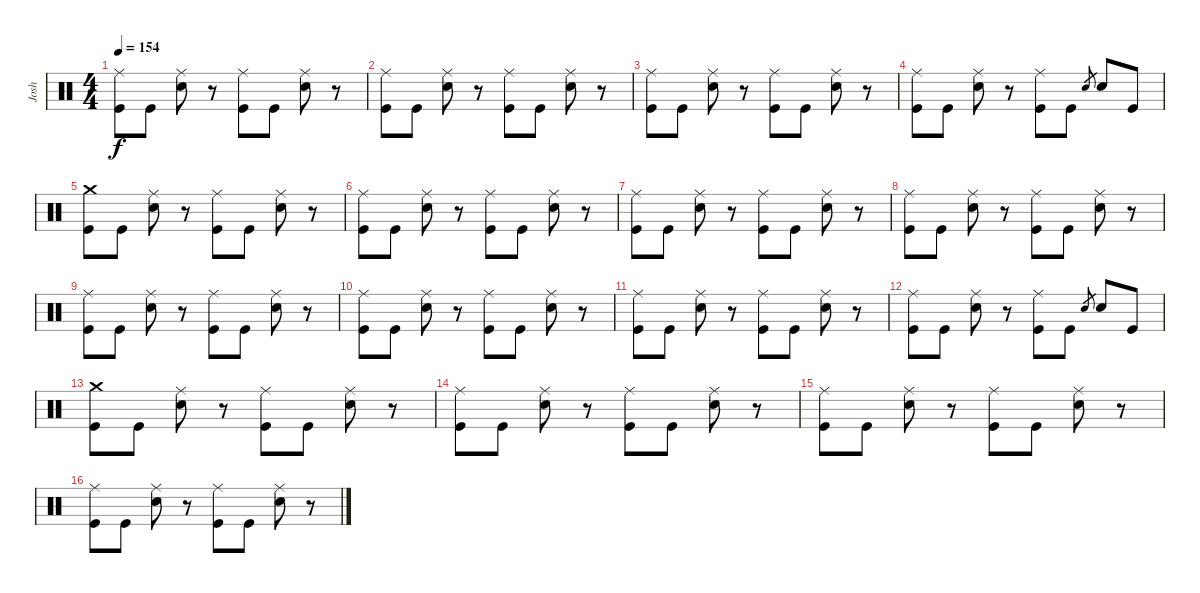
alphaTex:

\track ("Josh" "Josh") {instrument percussion}
\staff {score}
\articulation defaults
\ts (4 4)
\tempo 154
\clef neutral
\ks c
("Ride (middle)" "Kick (hit)").8{dy f} "Kick (hit)".8 ("Ride (middle)" "Snare (hit) 2").8 r.8 ("Ride (middle)" "Kick (hit)").8 "Kick (hit)".8 ("Ride (middle)" "Snare (hit) 2").8 r.8 |
("Ride (middle)" "Kick (hit)").8 "Kick (hit)".8 ("Ride (middle)" "Snare (hit) 2").8 r.8 ("Ride (middle)" "Kick (hit)").8 "Kick (hit)".8 ("Ride (middle)" "Snare (hit) 2").8 r.8 |
("Ride (middle)" "Kick (hit)").8 "Kick (hit)".8 ("Ride (middle)" "Snare (hit) 2").8 r.8 ("Ride (middle)" "Kick (hit)").8 "Kick (hit)".8 ("Ride (middle)" "Snare (hit) 2").8 r.8 |
("Ride (middle)" "Kick (hit)").8 "Kick (hit)".8 ("Ride (middle)" "Snare (hit) 2").8 r.8 ("Ride (middle)" "Kick (hit)").8 "Kick (hit)".8 "Snare (hit) 2".8{gr} "Snare (hit) 2".8 "Kick (hit)".8 |
("Crash medium (hit)" "Kick (hit)").8 "Kick (hit)".8 ("Ride (middle)" "Snare (hit) 2").8 r.8 ("Ride (middle)" "Kick (hit)").8 "Kick (hit)".8 ("Ride (middle)" "Snare (hit) 2").8 r.8 |
("Ride (middle)" "Kick (hit)").8 "Kick (hit)".8 ("Ride (middle)" "Snare (hit) 2").8 r.8 ("Ride (middle)" "Kick (hit)").8 "Kick (hit)".8 ("Ride (middle)" "Snare (hit) 2").8 r.8 |
("Ride (middle)" "Kick (hit)").8 "Kick (hit)".8 ("Ride (middle)" "Snare (hit) 2").8 r.8 ("Ride (middle)" "Kick (hit)").8 "Kick (hit)".8 ("Ride (middle)" "Snare (hit) 2").8 r.8 |
("Ride (middle)" "Kick (hit)").8 "Kick (hit)".8 ("Ride (middle)" "Snare (hit) 2").8 r.8 ("Ride (middle)" "Kick (hit)").8 "Kick (hit)".8 ("Ride (middle)" "Snare (hit) 2").8 r.8 |
("Ride (middle)" "Kick (hit)").8 "Kick (hit)".8 ("Ride (middle)" "Snare (hit) 2").8 r.8 ("Ride (middle)" "Kick (hit)").8 "Kick (hit)".8 ("Ride (middle)" "Snare (hit) 2").8 r.8 |
("Ride (middle)" "Kick (hit)").8 "Kick (hit)".8 ("Ride (middle)" "Snare (hit) 2").8 r.8 ("Ride (middle)" "Kick (hit)").8 "Kick (hit)".8 ("Ride (middle)" "Snare (hit) 2").8 r.8 |
("Ride (middle)" "Kick (hit)").8 "Kick (hit)".8 ("Ride (middle)" "Snare (hit) 2").8 r.8 ("Ride (middle)" "Kick (hit)").8 "Kick (hit)".8 ("Ride (middle)" "Snare (hit) 2").8 r.8 |
("Ride (middle)" "Kick (hit)").8 "Kick (hit)".8 ("Ride (middle)" "Snare (hit) 2").8 r.8 ("Ride (middle)" "Kick (hit)").8 "Kick (hit)".8 "Snare (hit) 2".8{gr} "Snare (hit) 2".8 "Kick (hit)".8 |
("Crash medium (hit)" "Kick (hit)").8 "Kick (hit)".8 ("Ride (middle)" "Snare (hit) 2").8 r.8 ("Ride (middle)" "Kick (hit)").8 "Kick (hit)".8 ("Ride (middle)" "Snare (hit) 2").8 r.8 |
("Ride (middle)" "Kick (hit)").8 "Kick (hit)".8 ("Ride (middle)" "Snare (hit) 2").8 r.8 ("Ride (middle)" "Kick (hit)").8 "Kick (hit)".8 ("Ride (middle)" "Snare (hit) 2").8 r.8 |
("Ride (middle)" "Kick (hit)").8 "Kick (hit)".8 ("Ride (middle)" "Snare (hit) 2").8 r.8 ("Ride (middle)" "Kick (hit)").8 "Kick (hit)".8 ("Ride (middle)" "Snare (hit) 2").8 r.8 |
("Ride (middle)" "Kick (hit)").8 "Kick (hit)".8 ("Ride (middle)" "Snare (hit) 2").8 r.8 ("Ride (middle)" "Kick (hit)").8 "Kick (hit)".8 ("Ride (middle)" "Snare (hit) 2").8 r.8
